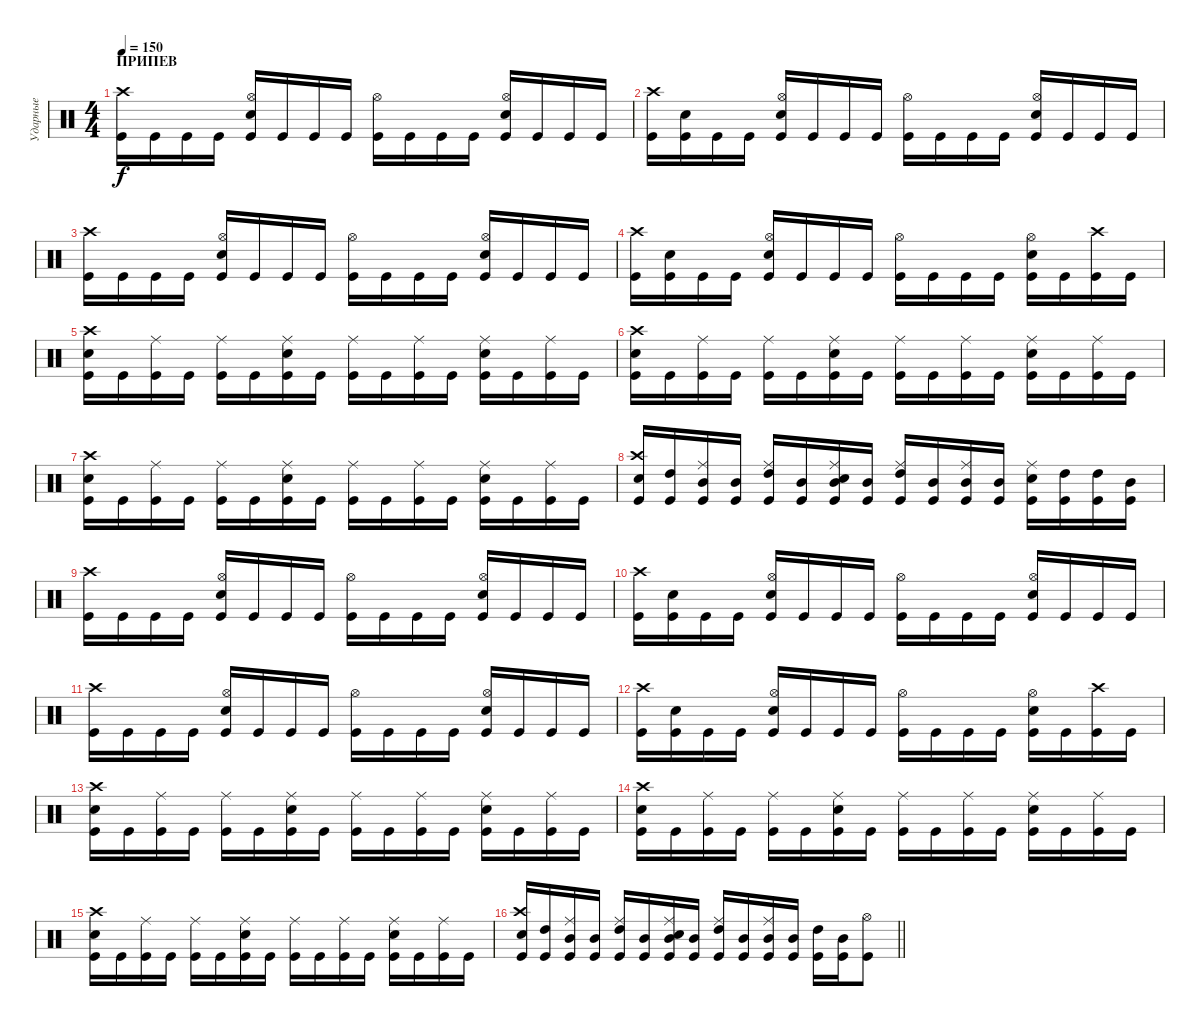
\track ("Ударные" "Ударные") {instrument percussion}
\staff {score}
\articulation defaults
\ts (4 4)
\section ("" "ПРИПЕВ")
\tempo 150
\clef neutral
\ks c
("Kick (hit)" "Crash high (hit)").16{dy f} "Kick (hit)".16 "Kick (hit)".16 "Kick (hit)".16 ("Kick (hit)" "Hi-Hat (open)" "Snare (hit) 2").16 "Kick (hit)".16 "Kick (hit)".16 "Kick (hit)".16 ("Kick (hit)" "Hi-Hat (open)").16 "Kick (hit)".16 "Kick (hit)".16 "Kick (hit)".16 ("Kick (hit)" "Hi-Hat (open)" "Snare (hit) 2").16 "Kick (hit)".16 "Kick (hit)".16 "Kick (hit)".16 |
("Kick (hit)" "Crash high (hit)").16 ("Kick (hit)" "Snare (hit) 2").16 "Kick (hit)".16 "Kick (hit)".16 ("Kick (hit)" "Hi-Hat (open)" "Snare (hit) 2").16 "Kick (hit)".16 "Kick (hit)".16 "Kick (hit)".16 ("Kick (hit)" "Hi-Hat (open)").16 "Kick (hit)".16 "Kick (hit)".16 "Kick (hit)".16 ("Kick (hit)" "Hi-Hat (open)" "Snare (hit) 2").16 "Kick (hit)".16 "Kick (hit)".16 "Kick (hit)".16 |
("Kick (hit)" "Crash high (hit)").16 "Kick (hit)".16 "Kick (hit)".16 "Kick (hit)".16 ("Kick (hit)" "Hi-Hat (open)" "Snare (hit) 2").16 "Kick (hit)".16 "Kick (hit)".16 "Kick (hit)".16 ("Kick (hit)" "Hi-Hat (open)").16 "Kick (hit)".16 "Kick (hit)".16 "Kick (hit)".16 ("Kick (hit)" "Hi-Hat (open)" "Snare (hit) 2").16 "Kick (hit)".16 "Kick (hit)".16 "Kick (hit)".16 |
("Kick (hit)" "Crash high (hit)").16 ("Kick (hit)" "Snare (hit) 2").16 "Kick (hit)".16 "Kick (hit)".16 ("Kick (hit)" "Hi-Hat (open)" "Snare (hit) 2").16 "Kick (hit)".16 "Kick (hit)".16 "Kick (hit)".16 ("Kick (hit)" "Hi-Hat (open)").16 "Kick (hit)".16 "Kick (hit)".16 "Kick (hit)".16 ("Kick (hit)" "Hi-Hat (open)" "Snare (hit) 2").16 "Kick (hit)".16 ("Kick (hit)" "Crash high (hit)").16 "Kick (hit)".16 |
("Kick (hit)" "Crash high (hit)" "Snare (hit) 2").16 "Kick (hit)".16 ("Kick (hit)" "Ride (middle)").16 "Kick (hit)".16 ("Kick (hit)" "Ride (middle)").16 "Kick (hit)".16 ("Kick (hit)" "Snare (hit) 2" "Ride (middle)").16 "Kick (hit)".16 ("Kick (hit)" "Ride (middle)").16 "Kick (hit)".16 ("Kick (hit)" "Ride (middle)").16 "Kick (hit)".16 ("Kick (hit)" "Ride (middle)" "Snare (hit) 2").16 "Kick (hit)".16 ("Kick (hit)" "Ride (middle)").16 "Kick (hit)".16 |
("Kick (hit)" "Crash high (hit)" "Snare (hit) 2").16 "Kick (hit)".16 ("Kick (hit)" "Ride (middle)").16 "Kick (hit)".16 ("Kick (hit)" "Ride (middle)").16 "Kick (hit)".16 ("Kick (hit)" "Snare (hit) 2" "Ride (middle)").16 "Kick (hit)".16 ("Kick (hit)" "Ride (middle)").16 "Kick (hit)".16 ("Kick (hit)" "Ride (middle)").16 "Kick (hit)".16 ("Kick (hit)" "Ride (middle)" "Snare (hit) 2").16 "Kick (hit)".16 ("Kick (hit)" "Ride (middle)").16 "Kick (hit)".16 |
("Kick (hit)" "Crash high (hit)" "Snare (hit) 2").16 "Kick (hit)".16 ("Kick (hit)" "Ride (middle)").16 "Kick (hit)".16 ("Kick (hit)" "Ride (middle)").16 "Kick (hit)".16 ("Kick (hit)" "Snare (hit) 2" "Ride (middle)").16 "Kick (hit)".16 ("Kick (hit)" "Ride (middle)").16 "Kick (hit)".16 ("Kick (hit)" "Ride (middle)").16 "Kick (hit)".16 ("Kick (hit)" "Ride (middle)" "Snare (hit) 2").16 "Kick (hit)".16 ("Kick (hit)" "Ride (middle)").16 "Kick (hit)".16 |
("Kick (hit)" "Crash high (hit)" "Snare (hit) 2").16 ("Kick (hit)" "High Tom (hit)").16 ("Kick (hit)" "Ride (middle)" "Mid Tom (hit)").16 ("Kick (hit)" "Mid Tom (hit)").16 ("Kick (hit)" "Ride (middle)" "High Tom (hit)").16 ("Kick (hit)" "Mid Tom (hit)").16 ("Kick (hit)" "Snare (hit) 2" "Ride (middle)" "Mid Tom (hit)").16 ("Kick (hit)" "Mid Tom (hit)").16 ("Kick (hit)" "Ride (middle)" "High Tom (hit)").16 ("Kick (hit)" "Mid Tom (hit)").16 ("Kick (hit)" "Ride (middle)" "Mid Tom (hit)").16 ("Kick (hit)" "Mid Tom (hit)").16 ("Kick (hit)" "Ride (middle)" "Snare (hit) 2").16 ("Kick (hit)" "High Tom (hit)").16 ("Kick (hit)" "High Tom (hit)").16 ("Kick (hit)" "Mid Tom (hit)").16 |
("Kick (hit)" "Crash high (hit)").16 "Kick (hit)".16 "Kick (hit)".16 "Kick (hit)".16 ("Kick (hit)" "Hi-Hat (open)" "Snare (hit) 2").16 "Kick (hit)".16 "Kick (hit)".16 "Kick (hit)".16 ("Kick (hit)" "Hi-Hat (open)").16 "Kick (hit)".16 "Kick (hit)".16 "Kick (hit)".16 ("Kick (hit)" "Hi-Hat (open)" "Snare (hit) 2").16 "Kick (hit)".16 "Kick (hit)".16 "Kick (hit)".16 |
("Kick (hit)" "Crash high (hit)").16 ("Kick (hit)" "Snare (hit) 2").16 "Kick (hit)".16 "Kick (hit)".16 ("Kick (hit)" "Hi-Hat (open)" "Snare (hit) 2").16 "Kick (hit)".16 "Kick (hit)".16 "Kick (hit)".16 ("Kick (hit)" "Hi-Hat (open)").16 "Kick (hit)".16 "Kick (hit)".16 "Kick (hit)".16 ("Kick (hit)" "Hi-Hat (open)" "Snare (hit) 2").16 "Kick (hit)".16 "Kick (hit)".16 "Kick (hit)".16 |
("Kick (hit)" "Crash high (hit)").16 "Kick (hit)".16 "Kick (hit)".16 "Kick (hit)".16 ("Kick (hit)" "Hi-Hat (open)" "Snare (hit) 2").16 "Kick (hit)".16 "Kick (hit)".16 "Kick (hit)".16 ("Kick (hit)" "Hi-Hat (open)").16 "Kick (hit)".16 "Kick (hit)".16 "Kick (hit)".16 ("Kick (hit)" "Hi-Hat (open)" "Snare (hit) 2").16 "Kick (hit)".16 "Kick (hit)".16 "Kick (hit)".16 |
("Kick (hit)" "Crash high (hit)").16 ("Kick (hit)" "Snare (hit) 2").16 "Kick (hit)".16 "Kick (hit)".16 ("Kick (hit)" "Hi-Hat (open)" "Snare (hit) 2").16 "Kick (hit)".16 "Kick (hit)".16 "Kick (hit)".16 ("Kick (hit)" "Hi-Hat (open)").16 "Kick (hit)".16 "Kick (hit)".16 "Kick (hit)".16 ("Kick (hit)" "Hi-Hat (open)" "Snare (hit) 2").16 "Kick (hit)".16 ("Kick (hit)" "Crash high (hit)").16 "Kick (hit)".16 |
("Kick (hit)" "Crash high (hit)" "Snare (hit) 2").16 "Kick (hit)".16 ("Kick (hit)" "Ride (middle)").16 "Kick (hit)".16 ("Kick (hit)" "Ride (middle)").16 "Kick (hit)".16 ("Kick (hit)" "Snare (hit) 2" "Ride (middle)").16 "Kick (hit)".16 ("Kick (hit)" "Ride (middle)").16 "Kick (hit)".16 ("Kick (hit)" "Ride (middle)").16 "Kick (hit)".16 ("Kick (hit)" "Ride (middle)" "Snare (hit) 2").16 "Kick (hit)".16 ("Kick (hit)" "Ride (middle)").16 "Kick (hit)".16 |
("Kick (hit)" "Crash high (hit)" "Snare (hit) 2").16 "Kick (hit)".16 ("Kick (hit)" "Ride (middle)").16 "Kick (hit)".16 ("Kick (hit)" "Ride (middle)").16 "Kick (hit)".16 ("Kick (hit)" "Snare (hit) 2" "Ride (middle)").16 "Kick (hit)".16 ("Kick (hit)" "Ride (middle)").16 "Kick (hit)".16 ("Kick (hit)" "Ride (middle)").16 "Kick (hit)".16 ("Kick (hit)" "Ride (middle)" "Snare (hit) 2").16 "Kick (hit)".16 ("Kick (hit)" "Ride (middle)").16 "Kick (hit)".16 |
("Kick (hit)" "Crash high (hit)" "Snare (hit) 2").16 "Kick (hit)".16 ("Kick (hit)" "Ride (middle)").16 "Kick (hit)".16 ("Kick (hit)" "Ride (middle)").16 "Kick (hit)".16 ("Kick (hit)" "Snare (hit) 2" "Ride (middle)").16 "Kick (hit)".16 ("Kick (hit)" "Ride (middle)").16 "Kick (hit)".16 ("Kick (hit)" "Ride (middle)").16 "Kick (hit)".16 ("Kick (hit)" "Ride (middle)" "Snare (hit) 2").16 "Kick (hit)".16 ("Kick (hit)" "Ride (middle)").16 "Kick (hit)".16 |
\barLineRight lightlight
("Kick (hit)" "Crash high (hit)" "Snare (hit) 2").16 ("Kick (hit)" "High Tom (hit)").16 ("Kick (hit)" "Ride (middle)" "Mid Tom (hit)").16 ("Kick (hit)" "Mid Tom (hit)").16 ("Kick (hit)" "Ride (middle)" "High Tom (hit)").16 ("Kick (hit)" "Mid Tom (hit)").16 ("Kick (hit)" "Snare (hit) 2" "Ride (middle)" "Mid Tom (hit)").16 ("Kick (hit)" "Mid Tom (hit)").16 ("Kick (hit)" "Ride (middle)" "High Tom (hit)").16 ("Kick (hit)" "Mid Tom (hit)").16 ("Kick (hit)" "Ride (middle)" "Mid Tom (hit)").16 ("Kick (hit)" "Mid Tom (hit)").16 ("High Tom (hit)" "Kick (hit)").16 ("Mid Tom (hit)" "Kick (hit)").16 ("Kick (hit)" "Hi-Hat (open)").8
